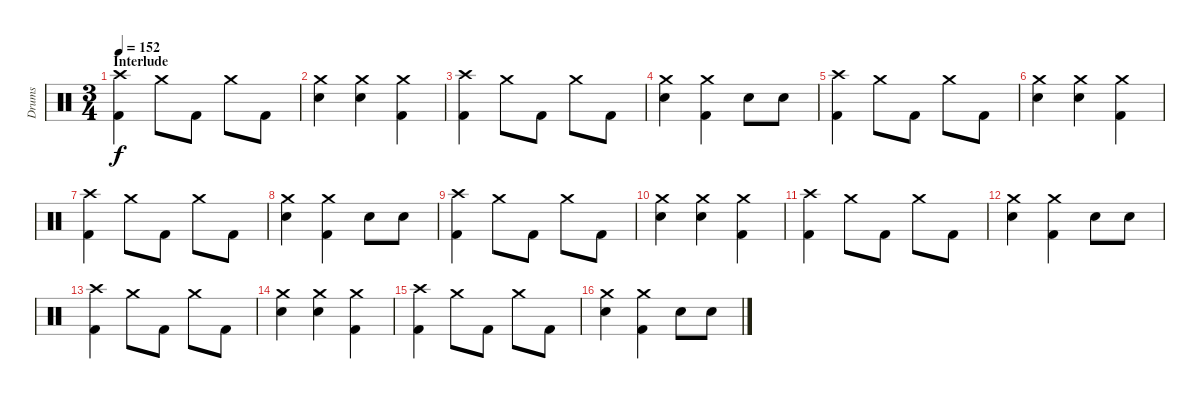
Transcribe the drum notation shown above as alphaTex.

\track ("Drums" "Drums") {instrument percussion}
\staff {score}
\articulation defaults
\ts (3 4)
\section ("" "Interlude")
\tempo 152
\clef neutral
\ks c
("Crash high (hit)" "Kick (hit) 2").4{dy f} "Crash medium (hit)".8 "Kick (hit) 2".8 "Crash medium (hit)".8 "Kick (hit) 2".8 |
("Crash medium (hit)" "Snare (hit) 2").4 ("Crash medium (hit)" "Snare (hit) 2").4 ("Crash medium (hit)" "Kick (hit) 2").4 |
("Crash high (hit)" "Kick (hit) 2").4 "Crash medium (hit)".8 "Kick (hit) 2".8 "Crash medium (hit)".8 "Kick (hit) 2".8 |
("Crash medium (hit)" "Snare (hit) 2").4 ("Crash medium (hit)" "Kick (hit) 2").4 "Snare (hit) 2".8 "Snare (hit) 2".8 |
("Crash high (hit)" "Kick (hit) 2").4 "Crash medium (hit)".8 "Kick (hit) 2".8 "Crash medium (hit)".8 "Kick (hit) 2".8 |
("Crash medium (hit)" "Snare (hit) 2").4 ("Crash medium (hit)" "Snare (hit) 2").4 ("Crash medium (hit)" "Kick (hit) 2").4 |
("Crash high (hit)" "Kick (hit) 2").4 "Crash medium (hit)".8 "Kick (hit) 2".8 "Crash medium (hit)".8 "Kick (hit) 2".8 |
("Crash medium (hit)" "Snare (hit) 2").4 ("Crash medium (hit)" "Kick (hit) 2").4 "Snare (hit) 2".8 "Snare (hit) 2".8 |
("Crash high (hit)" "Kick (hit) 2").4 "Crash medium (hit)".8 "Kick (hit) 2".8 "Crash medium (hit)".8 "Kick (hit) 2".8 |
("Crash medium (hit)" "Snare (hit) 2").4 ("Crash medium (hit)" "Snare (hit) 2").4 ("Crash medium (hit)" "Kick (hit) 2").4 |
("Crash high (hit)" "Kick (hit) 2").4 "Crash medium (hit)".8 "Kick (hit) 2".8 "Crash medium (hit)".8 "Kick (hit) 2".8 |
("Crash medium (hit)" "Snare (hit) 2").4 ("Crash medium (hit)" "Kick (hit) 2").4 "Snare (hit) 2".8 "Snare (hit) 2".8 |
("Crash high (hit)" "Kick (hit) 2").4 "Crash medium (hit)".8 "Kick (hit) 2".8 "Crash medium (hit)".8 "Kick (hit) 2".8 |
("Crash medium (hit)" "Snare (hit) 2").4 ("Crash medium (hit)" "Snare (hit) 2").4 ("Crash medium (hit)" "Kick (hit) 2").4 |
("Crash high (hit)" "Kick (hit) 2").4 "Crash medium (hit)".8 "Kick (hit) 2".8 "Crash medium (hit)".8 "Kick (hit) 2".8 |
("Crash medium (hit)" "Snare (hit) 2").4 ("Crash medium (hit)" "Kick (hit) 2").4 "Snare (hit) 2".8 "Snare (hit) 2".8
